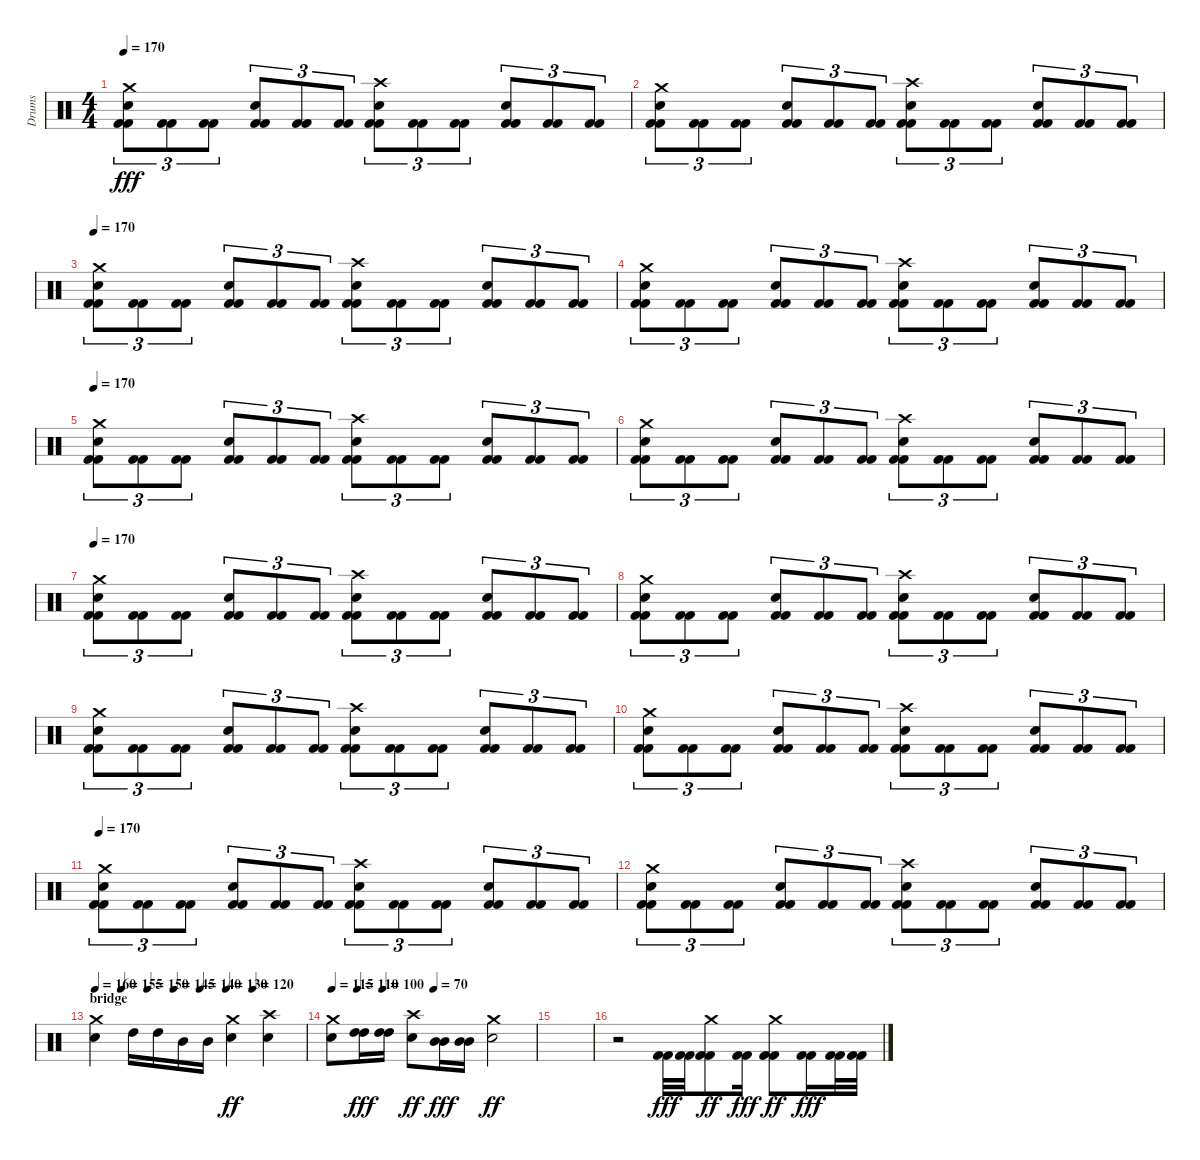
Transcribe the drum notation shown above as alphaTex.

\track ("Drums" "Drums") {instrument percussion}
\staff {score}
\articulation defaults
\ts (4 4)
\tempo 170
\clef neutral
\ks c
("Crash medium (hit)" "Electric Snare (hit)" "Kick (hit) 2" "Kick (hit) 2").8{tu (3 2) dy fff} ("Kick (hit) 2" "Kick (hit) 2").8{tu (3 2)} ("Kick (hit) 2" "Kick (hit) 2").8{tu (3 2)} ("Electric Snare (hit)" "Kick (hit) 2" "Kick (hit) 2").8{tu (3 2)} ("Kick (hit) 2" "Kick (hit) 2").8{tu (3 2)} ("Kick (hit) 2" "Kick (hit) 2").8{tu (3 2)} ("Crash high (hit)" "Electric Snare (hit)" "Kick (hit) 2" "Kick (hit) 2").8{tu (3 2)} ("Kick (hit) 2" "Kick (hit) 2").8{tu (3 2)} ("Kick (hit) 2" "Kick (hit) 2").8{tu (3 2)} ("Electric Snare (hit)" "Kick (hit) 2" "Kick (hit) 2").8{tu (3 2)} ("Kick (hit) 2" "Kick (hit) 2").8{tu (3 2)} ("Kick (hit) 2" "Kick (hit) 2").8{tu (3 2)} |
("Crash medium (hit)" "Electric Snare (hit)" "Kick (hit) 2" "Kick (hit) 2").8{tu (3 2)} ("Kick (hit) 2" "Kick (hit) 2").8{tu (3 2)} ("Kick (hit) 2" "Kick (hit) 2").8{tu (3 2)} ("Electric Snare (hit)" "Kick (hit) 2" "Kick (hit) 2").8{tu (3 2)} ("Kick (hit) 2" "Kick (hit) 2").8{tu (3 2)} ("Kick (hit) 2" "Kick (hit) 2").8{tu (3 2)} ("Crash high (hit)" "Electric Snare (hit)" "Kick (hit) 2" "Kick (hit) 2").8{tu (3 2)} ("Kick (hit) 2" "Kick (hit) 2").8{tu (3 2)} ("Kick (hit) 2" "Kick (hit) 2").8{tu (3 2)} ("Electric Snare (hit)" "Kick (hit) 2" "Kick (hit) 2").8{tu (3 2)} ("Kick (hit) 2" "Kick (hit) 2").8{tu (3 2)} ("Kick (hit) 2" "Kick (hit) 2").8{tu (3 2)} |
\tempo 170
("Crash medium (hit)" "Electric Snare (hit)" "Kick (hit) 2" "Kick (hit) 2").8{tu (3 2)} ("Kick (hit) 2" "Kick (hit) 2").8{tu (3 2)} ("Kick (hit) 2" "Kick (hit) 2").8{tu (3 2)} ("Electric Snare (hit)" "Kick (hit) 2" "Kick (hit) 2").8{tu (3 2)} ("Kick (hit) 2" "Kick (hit) 2").8{tu (3 2)} ("Kick (hit) 2" "Kick (hit) 2").8{tu (3 2)} ("Crash high (hit)" "Electric Snare (hit)" "Kick (hit) 2" "Kick (hit) 2").8{tu (3 2)} ("Kick (hit) 2" "Kick (hit) 2").8{tu (3 2)} ("Kick (hit) 2" "Kick (hit) 2").8{tu (3 2)} ("Electric Snare (hit)" "Kick (hit) 2" "Kick (hit) 2").8{tu (3 2)} ("Kick (hit) 2" "Kick (hit) 2").8{tu (3 2)} ("Kick (hit) 2" "Kick (hit) 2").8{tu (3 2)} |
("Crash medium (hit)" "Electric Snare (hit)" "Kick (hit) 2" "Kick (hit) 2").8{tu (3 2)} ("Kick (hit) 2" "Kick (hit) 2").8{tu (3 2)} ("Kick (hit) 2" "Kick (hit) 2").8{tu (3 2)} ("Electric Snare (hit)" "Kick (hit) 2" "Kick (hit) 2").8{tu (3 2)} ("Kick (hit) 2" "Kick (hit) 2").8{tu (3 2)} ("Kick (hit) 2" "Kick (hit) 2").8{tu (3 2)} ("Crash high (hit)" "Electric Snare (hit)" "Kick (hit) 2" "Kick (hit) 2").8{tu (3 2)} ("Kick (hit) 2" "Kick (hit) 2").8{tu (3 2)} ("Kick (hit) 2" "Kick (hit) 2").8{tu (3 2)} ("Electric Snare (hit)" "Kick (hit) 2" "Kick (hit) 2").8{tu (3 2)} ("Kick (hit) 2" "Kick (hit) 2").8{tu (3 2)} ("Kick (hit) 2" "Kick (hit) 2").8{tu (3 2)} |
\tempo 170
("Crash medium (hit)" "Electric Snare (hit)" "Kick (hit) 2" "Kick (hit) 2").8{tu (3 2)} ("Kick (hit) 2" "Kick (hit) 2").8{tu (3 2)} ("Kick (hit) 2" "Kick (hit) 2").8{tu (3 2)} ("Electric Snare (hit)" "Kick (hit) 2" "Kick (hit) 2").8{tu (3 2)} ("Kick (hit) 2" "Kick (hit) 2").8{tu (3 2)} ("Kick (hit) 2" "Kick (hit) 2").8{tu (3 2)} ("Crash high (hit)" "Electric Snare (hit)" "Kick (hit) 2" "Kick (hit) 2").8{tu (3 2)} ("Kick (hit) 2" "Kick (hit) 2").8{tu (3 2)} ("Kick (hit) 2" "Kick (hit) 2").8{tu (3 2)} ("Electric Snare (hit)" "Kick (hit) 2" "Kick (hit) 2").8{tu (3 2)} ("Kick (hit) 2" "Kick (hit) 2").8{tu (3 2)} ("Kick (hit) 2" "Kick (hit) 2").8{tu (3 2)} |
("Crash medium (hit)" "Electric Snare (hit)" "Kick (hit) 2" "Kick (hit) 2").8{tu (3 2)} ("Kick (hit) 2" "Kick (hit) 2").8{tu (3 2)} ("Kick (hit) 2" "Kick (hit) 2").8{tu (3 2)} ("Electric Snare (hit)" "Kick (hit) 2" "Kick (hit) 2").8{tu (3 2)} ("Kick (hit) 2" "Kick (hit) 2").8{tu (3 2)} ("Kick (hit) 2" "Kick (hit) 2").8{tu (3 2)} ("Crash high (hit)" "Electric Snare (hit)" "Kick (hit) 2" "Kick (hit) 2").8{tu (3 2)} ("Kick (hit) 2" "Kick (hit) 2").8{tu (3 2)} ("Kick (hit) 2" "Kick (hit) 2").8{tu (3 2)} ("Electric Snare (hit)" "Kick (hit) 2" "Kick (hit) 2").8{tu (3 2)} ("Kick (hit) 2" "Kick (hit) 2").8{tu (3 2)} ("Kick (hit) 2" "Kick (hit) 2").8{tu (3 2)} |
\tempo 170
("Crash medium (hit)" "Electric Snare (hit)" "Kick (hit) 2" "Kick (hit) 2").8{tu (3 2)} ("Kick (hit) 2" "Kick (hit) 2").8{tu (3 2)} ("Kick (hit) 2" "Kick (hit) 2").8{tu (3 2)} ("Electric Snare (hit)" "Kick (hit) 2" "Kick (hit) 2").8{tu (3 2)} ("Kick (hit) 2" "Kick (hit) 2").8{tu (3 2)} ("Kick (hit) 2" "Kick (hit) 2").8{tu (3 2)} ("Crash high (hit)" "Electric Snare (hit)" "Kick (hit) 2" "Kick (hit) 2").8{tu (3 2)} ("Kick (hit) 2" "Kick (hit) 2").8{tu (3 2)} ("Kick (hit) 2" "Kick (hit) 2").8{tu (3 2)} ("Electric Snare (hit)" "Kick (hit) 2" "Kick (hit) 2").8{tu (3 2)} ("Kick (hit) 2" "Kick (hit) 2").8{tu (3 2)} ("Kick (hit) 2" "Kick (hit) 2").8{tu (3 2)} |
("Crash medium (hit)" "Electric Snare (hit)" "Kick (hit) 2" "Kick (hit) 2").8{tu (3 2)} ("Kick (hit) 2" "Kick (hit) 2").8{tu (3 2)} ("Kick (hit) 2" "Kick (hit) 2").8{tu (3 2)} ("Electric Snare (hit)" "Kick (hit) 2" "Kick (hit) 2").8{tu (3 2)} ("Kick (hit) 2" "Kick (hit) 2").8{tu (3 2)} ("Kick (hit) 2" "Kick (hit) 2").8{tu (3 2)} ("Crash high (hit)" "Electric Snare (hit)" "Kick (hit) 2" "Kick (hit) 2").8{tu (3 2)} ("Kick (hit) 2" "Kick (hit) 2").8{tu (3 2)} ("Kick (hit) 2" "Kick (hit) 2").8{tu (3 2)} ("Electric Snare (hit)" "Kick (hit) 2" "Kick (hit) 2").8{tu (3 2)} ("Kick (hit) 2" "Kick (hit) 2").8{tu (3 2)} ("Kick (hit) 2" "Kick (hit) 2").8{tu (3 2)} |
("Crash medium (hit)" "Electric Snare (hit)" "Kick (hit) 2" "Kick (hit) 2").8{tu (3 2)} ("Kick (hit) 2" "Kick (hit) 2").8{tu (3 2)} ("Kick (hit) 2" "Kick (hit) 2").8{tu (3 2)} ("Electric Snare (hit)" "Kick (hit) 2" "Kick (hit) 2").8{tu (3 2)} ("Kick (hit) 2" "Kick (hit) 2").8{tu (3 2)} ("Kick (hit) 2" "Kick (hit) 2").8{tu (3 2)} ("Crash high (hit)" "Electric Snare (hit)" "Kick (hit) 2" "Kick (hit) 2").8{tu (3 2)} ("Kick (hit) 2" "Kick (hit) 2").8{tu (3 2)} ("Kick (hit) 2" "Kick (hit) 2").8{tu (3 2)} ("Electric Snare (hit)" "Kick (hit) 2" "Kick (hit) 2").8{tu (3 2)} ("Kick (hit) 2" "Kick (hit) 2").8{tu (3 2)} ("Kick (hit) 2" "Kick (hit) 2").8{tu (3 2)} |
("Crash medium (hit)" "Electric Snare (hit)" "Kick (hit) 2" "Kick (hit) 2").8{tu (3 2)} ("Kick (hit) 2" "Kick (hit) 2").8{tu (3 2)} ("Kick (hit) 2" "Kick (hit) 2").8{tu (3 2)} ("Electric Snare (hit)" "Kick (hit) 2" "Kick (hit) 2").8{tu (3 2)} ("Kick (hit) 2" "Kick (hit) 2").8{tu (3 2)} ("Kick (hit) 2" "Kick (hit) 2").8{tu (3 2)} ("Crash high (hit)" "Electric Snare (hit)" "Kick (hit) 2" "Kick (hit) 2").8{tu (3 2)} ("Kick (hit) 2" "Kick (hit) 2").8{tu (3 2)} ("Kick (hit) 2" "Kick (hit) 2").8{tu (3 2)} ("Electric Snare (hit)" "Kick (hit) 2" "Kick (hit) 2").8{tu (3 2)} ("Kick (hit) 2" "Kick (hit) 2").8{tu (3 2)} ("Kick (hit) 2" "Kick (hit) 2").8{tu (3 2)} |
\tempo 170
("Crash medium (hit)" "Electric Snare (hit)" "Kick (hit) 2" "Kick (hit) 2").8{tu (3 2)} ("Kick (hit) 2" "Kick (hit) 2").8{tu (3 2)} ("Kick (hit) 2" "Kick (hit) 2").8{tu (3 2)} ("Electric Snare (hit)" "Kick (hit) 2" "Kick (hit) 2").8{tu (3 2)} ("Kick (hit) 2" "Kick (hit) 2").8{tu (3 2)} ("Kick (hit) 2" "Kick (hit) 2").8{tu (3 2)} ("Crash high (hit)" "Electric Snare (hit)" "Kick (hit) 2" "Kick (hit) 2").8{tu (3 2)} ("Kick (hit) 2" "Kick (hit) 2").8{tu (3 2)} ("Kick (hit) 2" "Kick (hit) 2").8{tu (3 2)} ("Electric Snare (hit)" "Kick (hit) 2" "Kick (hit) 2").8{tu (3 2)} ("Kick (hit) 2" "Kick (hit) 2").8{tu (3 2)} ("Kick (hit) 2" "Kick (hit) 2").8{tu (3 2)} |
("Crash medium (hit)" "Electric Snare (hit)" "Kick (hit) 2" "Kick (hit) 2").8{tu (3 2)} ("Kick (hit) 2" "Kick (hit) 2").8{tu (3 2)} ("Kick (hit) 2" "Kick (hit) 2").8{tu (3 2)} ("Electric Snare (hit)" "Kick (hit) 2" "Kick (hit) 2").8{tu (3 2)} ("Kick (hit) 2" "Kick (hit) 2").8{tu (3 2)} ("Kick (hit) 2" "Kick (hit) 2").8{tu (3 2)} ("Crash high (hit)" "Electric Snare (hit)" "Kick (hit) 2" "Kick (hit) 2").8{tu (3 2)} ("Kick (hit) 2" "Kick (hit) 2").8{tu (3 2)} ("Kick (hit) 2" "Kick (hit) 2").8{tu (3 2)} ("Electric Snare (hit)" "Kick (hit) 2" "Kick (hit) 2").8{tu (3 2)} ("Kick (hit) 2" "Kick (hit) 2").8{tu (3 2)} ("Kick (hit) 2" "Kick (hit) 2").8{tu (3 2)} |
\section ("" "bridge")
\tempo 160
\tempo (155 0.125)
\tempo (150 0.25)
\tempo (145 0.375)
\tempo (140 0.5)
\tempo (130 0.625)
\tempo (120 0.75)
("Crash medium (hit)" "Electric Snare (hit)").4 "High Tom (hit)".16 "High Tom (hit)".16 "Mid Tom (hit)".16 "Mid Tom (hit)".16 ("Crash medium (hit)" "Electric Snare (hit)").4{dy ff} ("Crash high (hit)" "Electric Snare (hit)").4 |
\tempo 115
\tempo (110 0.125)
\tempo (100 0.25)
\tempo (70 0.5)
("Crash medium (hit)" "Electric Snare (hit)").8 ("High Tom (hit)" "High Tom (hit)").16{dy fff} ("High Tom (hit)" "High Tom (hit)").16 ("Crash high (hit)" "Electric Snare (hit)").8{dy ff} ("Mid Tom (hit)" "Mid Tom (hit)").16{dy fff} ("Mid Tom (hit)" "Mid Tom (hit)").16 ("Crash medium (hit)" "Electric Snare (hit)").2{dy ff} |
|
r.2 ("Kick (hit) 2" "Kick (hit) 2").32{dy fff} ("Kick (hit) 2" "Kick (hit) 2").32 ("Kick (hit) 2" "Kick (hit) 2" "Crash medium (hit)").8{dy ff} ("Kick (hit) 2" "Kick (hit) 2").16{dy fff} ("Kick (hit) 2" "Kick (hit) 2" "Crash medium (hit)").8{dy ff} ("Kick (hit) 2" "Kick (hit) 2").16{dy fff} ("Kick (hit) 2" "Kick (hit) 2").32 ("Kick (hit) 2" "Kick (hit) 2").32
